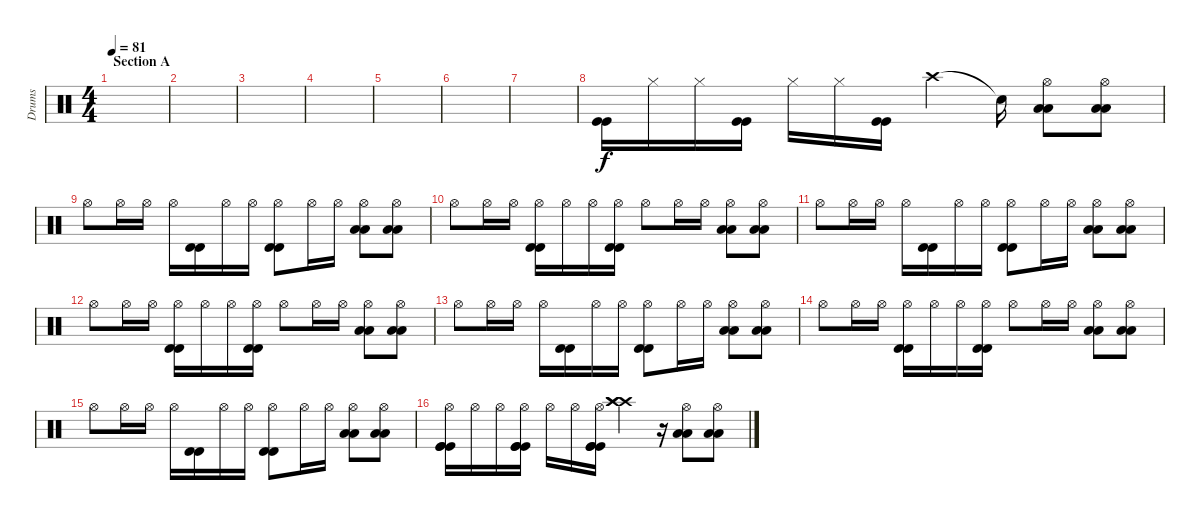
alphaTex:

\track ("Drums" "Drums") {instrument percussion}
\staff {score}
\articulation defaults
\ts (4 4)
\section ("" "Section A")
\tempo 81
\clef neutral
\ks c
|
|
|
|
|
|
|
("Kick (hit)" "Kick (hit)").16 "Hi-Hat (closed)".16 "Hi-Hat (closed)".16 ("Kick (hit)" "Kick (hit)").16 "Hi-Hat (closed)".16 "Hi-Hat (closed)".16 ("Kick (hit)" "Kick (hit)").16 "Crash high (hit)".4 "Snare (hit)"{t}.16 ("Hi-Hat (open)" "Low Tom (hit)" "Low Tom (hit)").8 ("Hi-Hat (open)" "Low Tom (hit)" "Low Tom (hit)").8 |
"Hi-Hat (open)".8 "Hi-Hat (open)".16 "Hi-Hat (open)".16 "Hi-Hat (open)".16 ("Timbale high (hit)" "Timbale high (hit)").16 "Hi-Hat (open)".16 "Hi-Hat (open)".16 ("Hi-Hat (open)" "Timbale high (hit)" "Timbale high (hit)").8 "Hi-Hat (open)".16 "Hi-Hat (open)".16 ("Hi-Hat (open)" "Low Tom (hit)" "Low Tom (hit)").8 ("Hi-Hat (open)" "Low Tom (hit)" "Low Tom (hit)").8 |
"Hi-Hat (open)".8 "Hi-Hat (open)".16 "Hi-Hat (open)".16 ("Hi-Hat (open)" "Timbale high (hit)" "Timbale high (hit)").16 "Hi-Hat (open)".16 "Hi-Hat (open)".16 ("Hi-Hat (open)" "Timbale high (hit)" "Timbale high (hit)").16 "Hi-Hat (open)".8 "Hi-Hat (open)".16 "Hi-Hat (open)".16 ("Hi-Hat (open)" "Low Tom (hit)" "Low Tom (hit)").8 ("Hi-Hat (open)" "Low Tom (hit)" "Low Tom (hit)").8 |
"Hi-Hat (open)".8 "Hi-Hat (open)".16 "Hi-Hat (open)".16 "Hi-Hat (open)".16 ("Timbale high (hit)" "Timbale high (hit)").16 "Hi-Hat (open)".16 "Hi-Hat (open)".16 ("Hi-Hat (open)" "Timbale high (hit)" "Timbale high (hit)").8 "Hi-Hat (open)".16 "Hi-Hat (open)".16 ("Hi-Hat (open)" "Low Tom (hit)" "Low Tom (hit)").8 ("Hi-Hat (open)" "Low Tom (hit)" "Low Tom (hit)").8 |
"Hi-Hat (open)".8 "Hi-Hat (open)".16 "Hi-Hat (open)".16 ("Hi-Hat (open)" "Timbale high (hit)" "Timbale high (hit)").16 "Hi-Hat (open)".16 "Hi-Hat (open)".16 ("Hi-Hat (open)" "Timbale high (hit)" "Timbale high (hit)").16 "Hi-Hat (open)".8 "Hi-Hat (open)".16 "Hi-Hat (open)".16 ("Hi-Hat (open)" "Low Tom (hit)" "Low Tom (hit)").8 ("Hi-Hat (open)" "Low Tom (hit)" "Low Tom (hit)").8 |
"Hi-Hat (open)".8 "Hi-Hat (open)".16 "Hi-Hat (open)".16 "Hi-Hat (open)".16 ("Timbale high (hit)" "Timbale high (hit)").16 "Hi-Hat (open)".16 "Hi-Hat (open)".16 ("Hi-Hat (open)" "Timbale high (hit)" "Timbale high (hit)").8 "Hi-Hat (open)".16 "Hi-Hat (open)".16 ("Hi-Hat (open)" "Low Tom (hit)" "Low Tom (hit)").8 ("Hi-Hat (open)" "Low Tom (hit)" "Low Tom (hit)").8 |
"Hi-Hat (open)".8 "Hi-Hat (open)".16 "Hi-Hat (open)".16 ("Hi-Hat (open)" "Timbale high (hit)" "Timbale high (hit)").16 "Hi-Hat (open)".16 "Hi-Hat (open)".16 ("Hi-Hat (open)" "Timbale high (hit)" "Timbale high (hit)").16 "Hi-Hat (open)".8 "Hi-Hat (open)".16 "Hi-Hat (open)".16 ("Hi-Hat (open)" "Low Tom (hit)" "Low Tom (hit)").8 ("Hi-Hat (open)" "Low Tom (hit)" "Low Tom (hit)").8 |
"Hi-Hat (open)".8 "Hi-Hat (open)".16 "Hi-Hat (open)".16 "Hi-Hat (open)".16 ("Timbale high (hit)" "Timbale high (hit)").16 "Hi-Hat (open)".16 "Hi-Hat (open)".16 ("Hi-Hat (open)" "Timbale high (hit)" "Timbale high (hit)").8 "Hi-Hat (open)".16 "Hi-Hat (open)".16 ("Hi-Hat (open)" "Low Tom (hit)" "Low Tom (hit)").8 ("Hi-Hat (open)" "Low Tom (hit)" "Low Tom (hit)").8 |
("Hi-Hat (open)" "Kick (hit)" "Kick (hit)" "Kick (hit)").16 "Hi-Hat (open)".16 "Hi-Hat (open)".16 ("Hi-Hat (open)" "Kick (hit)" "Kick (hit)" "Kick (hit)").16 "Hi-Hat (open)".16 "Hi-Hat (open)".16 ("Hi-Hat (open)" "Kick (hit)" "Kick (hit)" "Kick (hit)").16 ("Crash high (hit)" "Crash high (hit)" "Crash high (hit)").4 r.16 ("Hi-Hat (open)" "Low Tom (hit)" "Low Tom (hit)").8 ("Hi-Hat (open)" "Low Tom (hit)" "Low Tom (hit)").8
